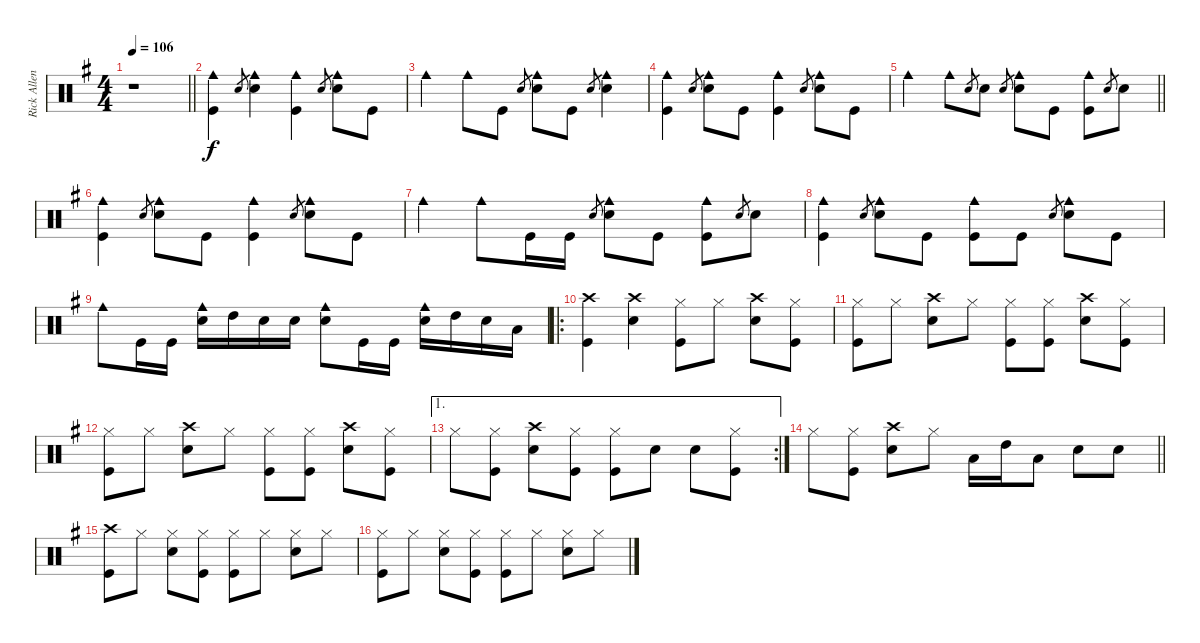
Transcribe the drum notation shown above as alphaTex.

\track ("Rick Allen \"Thundergood\"" "Rick Allen") {instrument percussion}
\staff {score}
\articulation defaults
\ts (4 4)
\tempo 106
\clef neutral
\barLineRight lightlight
\ks eminor
r.1{dy f} |
("Cowbell medium (hit)" "Kick (hit)").4 "Snare (hit) 2".8{gr} ("Cowbell medium (hit)" "Snare (hit) 2").4 ("Cowbell medium (hit)" "Kick (hit)").4 "Snare (hit) 2".8{gr} ("Cowbell medium (hit)" "Snare (hit) 2").8 "Kick (hit)".8 |
"Cowbell medium (hit)".4 "Cowbell medium (hit)".8 "Kick (hit)".8 "Snare (hit) 2".8{gr} ("Cowbell medium (hit)" "Snare (hit) 2").8 "Kick (hit)".8 "Snare (hit) 2".8{gr} ("Cowbell medium (hit)" "Snare (hit) 2").4 |
("Cowbell medium (hit)" "Kick (hit)").4 "Snare (hit) 2".8{gr} ("Cowbell medium (hit)" "Snare (hit) 2").8 "Kick (hit)".8 ("Cowbell medium (hit)" "Kick (hit)").4 "Snare (hit) 2".8{gr} ("Cowbell medium (hit)" "Snare (hit) 2").8 "Kick (hit)".8 |
\barLineRight lightlight "Cowbell medium (hit)".4 "Cowbell medium (hit)".8 "Snare (hit) 2".8{gr} "Snare (hit) 2".8 "Snare (hit) 2".8{gr}
("Cowbell medium (hit)" "Snare (hit) 2").8 "Kick (hit)".8 ("Cowbell medium (hit)" "Kick (hit)").8 "Snare (hit) 2".8{gr} "Snare (hit) 2".8 |
("Cowbell medium (hit)" "Kick (hit)").4 "Snare (hit) 2".8{gr} ("Cowbell medium (hit)" "Snare (hit) 2").8 "Kick (hit)".8 ("Cowbell medium (hit)" "Kick (hit)").4 "Snare (hit) 2".8{gr} ("Cowbell medium (hit)" "Snare (hit) 2").8 "Kick (hit)".8 |
"Cowbell medium (hit)".4 "Cowbell medium (hit)".8 "Kick (hit)".16 "Kick (hit)".16 "Snare (hit) 2".8{gr} ("Cowbell medium (hit)" "Snare (hit) 2").8 "Kick (hit)".8 ("Cowbell medium (hit)" "Kick (hit)").8 "Snare (hit) 2".8{gr} "Snare (hit) 2".8 |
("Cowbell medium (hit)" "Kick (hit)").4 "Snare (hit) 2".8{gr} ("Cowbell medium (hit)" "Snare (hit) 2").8 "Kick (hit)".8 ("Cowbell medium (hit)" "Kick (hit)").8 "Kick (hit)".8 "Snare (hit) 2".8{gr} ("Cowbell medium (hit)" "Snare (hit) 2").8 "Kick (hit)".8 |
"Cowbell medium (hit)".8 "Kick (hit)".16 "Kick (hit)".16 ("Cowbell medium (hit)" "Snare (hit) 2").16 "High Tom (hit)".16 "Snare (hit) 2".16 "Snare (hit) 2".16 ("Cowbell medium (hit)" "Snare (hit) 2").8 "Kick (hit)".16 "Kick (hit)".16 ("Cowbell medium (hit)" "Snare (hit) 2").16 "High Tom (hit)".16 "Snare (hit) 2".16 "Low Tom (hit)".16 |
\ro
("Crash high (hit)" "Kick (hit)").4 ("Crash high (hit)" "Snare (hit) 2").4 ("Hi-Hat (closed)" "Kick (hit)").8 "Hi-Hat (closed)".8 ("Crash high (hit)" "Snare (hit) 2").8 ("Hi-Hat (closed)" "Kick (hit)").8 |
("Hi-Hat (closed)" "Kick (hit)").8 "Hi-Hat (closed)".8 ("Crash high (hit)" "Snare (hit) 2").8 "Hi-Hat (closed)".8 ("Hi-Hat (closed)" "Kick (hit)").8 ("Hi-Hat (closed)" "Kick (hit)").8 ("Crash high (hit)" "Snare (hit) 2").8 ("Hi-Hat (closed)" "Kick (hit)").8 |
("Hi-Hat (closed)" "Kick (hit)").8 "Hi-Hat (closed)".8 ("Crash high (hit)" "Snare (hit) 2").8 "Hi-Hat (closed)".8 ("Hi-Hat (closed)" "Kick (hit)").8 ("Hi-Hat (closed)" "Kick (hit)").8 ("Crash high (hit)" "Snare (hit) 2").8 ("Hi-Hat (closed)" "Kick (hit)").8 |
\ae 1
\rc 2 "Hi-Hat (closed)".8
("Hi-Hat (closed)" "Kick (hit)").8 ("Crash high (hit)" "Snare (hit) 2").8 ("Hi-Hat (closed)" "Kick (hit)").8 ("Hi-Hat (closed)" "Kick (hit)").8 "Snare (hit) 2".8 "Snare (hit) 2".8 ("Hi-Hat (closed)" "Kick (hit)").8 |
\barLineRight lightlight "Hi-Hat (closed)".8
("Hi-Hat (closed)" "Kick (hit)").8 ("Crash high (hit)" "Snare (hit) 2").8 "Hi-Hat (closed)".8 "Low Tom (hit)".16 "High Tom (hit)".16 "Low Tom (hit)".8 "Snare (hit) 2".8 "Snare (hit) 2".8 |
("Crash high (hit)" "Kick (hit)").8 "Hi-Hat (closed)".8 ("Hi-Hat (closed)" "Snare (hit) 2").8 ("Hi-Hat (closed)" "Kick (hit)").8 ("Hi-Hat (closed)" "Kick (hit)").8 "Hi-Hat (closed)".8 ("Hi-Hat (closed)" "Snare (hit) 2").8 "Hi-Hat (closed)".8 |
("Hi-Hat (closed)" "Kick (hit)").8 "Hi-Hat (closed)".8 ("Hi-Hat (closed)" "Snare (hit) 2").8 ("Hi-Hat (closed)" "Kick (hit)").8 ("Hi-Hat (closed)" "Kick (hit)").8 "Hi-Hat (closed)".8 ("Hi-Hat (closed)" "Snare (hit) 2").8 "Hi-Hat (closed)".8
